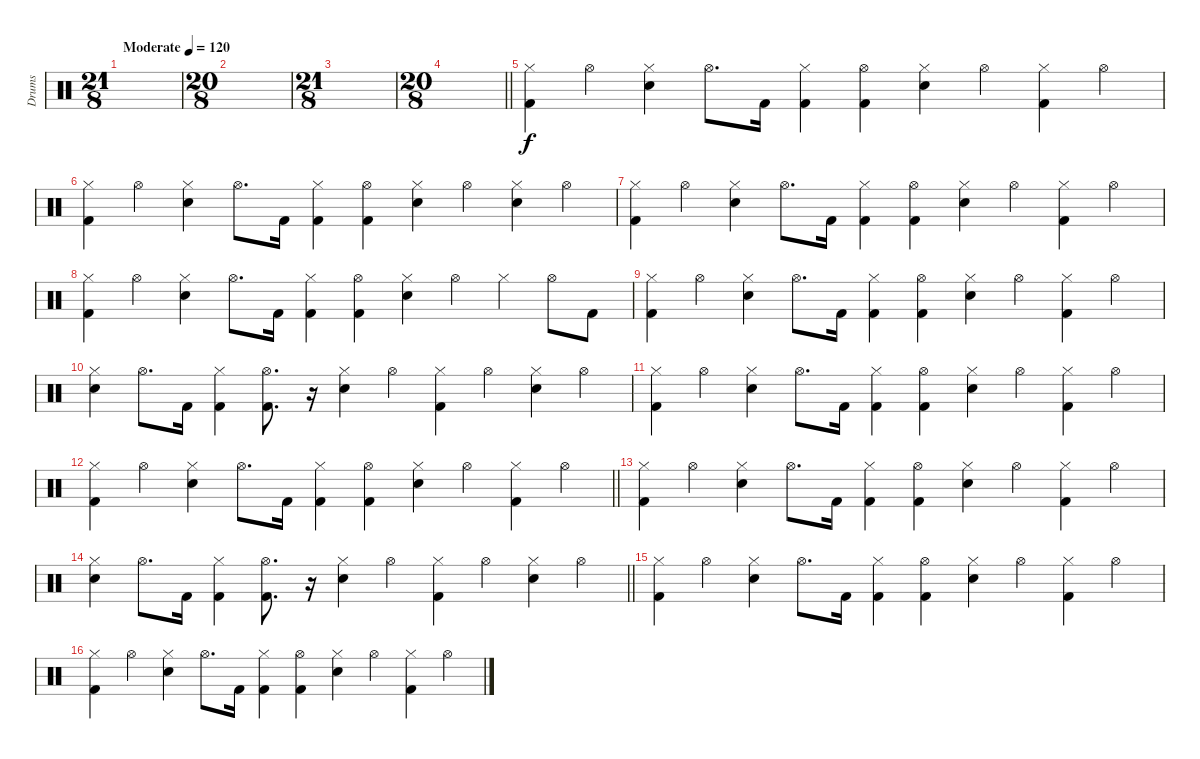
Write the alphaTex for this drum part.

\track ("Drums" "Drums") {instrument percussion}
\staff {score}
\articulation defaults
\ts (21 8)
\section ("" "")
\tempo (120 "Moderate")
\clef neutral
\ks c
|
\ts (20 8)
|
\ts (21 8)
|
\ts (20 8)
\barLineRight lightlight
|
\section ("" "")
("Hi-Hat (closed)" "Kick (hit) 2").4 "Hi-Hat (open)".4 ("Hi-Hat (closed)" "Electric Snare (hit)").4 "Hi-Hat (open)".8{d} "Kick (hit) 2".16 ("Hi-Hat (closed)" "Kick (hit) 2").4 ("Hi-Hat (open)" "Kick (hit) 2").4 ("Hi-Hat (closed)" "Electric Snare (hit)").4 "Hi-Hat (open)".4 ("Hi-Hat (closed)" "Kick (hit) 2").4 "Hi-Hat (open)".4 |
("Hi-Hat (closed)" "Kick (hit) 2").4 "Hi-Hat (open)".4 ("Hi-Hat (closed)" "Electric Snare (hit)").4 "Hi-Hat (open)".8{d} "Kick (hit) 2".16 ("Hi-Hat (closed)" "Kick (hit) 2").4 ("Hi-Hat (open)" "Kick (hit) 2").4 ("Hi-Hat (closed)" "Electric Snare (hit)").4 "Hi-Hat (open)".4 ("Hi-Hat (closed)" "Electric Snare (hit)").4 "Hi-Hat (open)".4 |
("Hi-Hat (closed)" "Kick (hit) 2").4 "Hi-Hat (open)".4 ("Hi-Hat (closed)" "Electric Snare (hit)").4 "Hi-Hat (open)".8{d} "Kick (hit) 2".16 ("Hi-Hat (closed)" "Kick (hit) 2").4 ("Hi-Hat (open)" "Kick (hit) 2").4 ("Hi-Hat (closed)" "Electric Snare (hit)").4 "Hi-Hat (open)".4 ("Hi-Hat (closed)" "Kick (hit) 2").4 "Hi-Hat (open)".4 |
("Hi-Hat (closed)" "Kick (hit) 2").4 "Hi-Hat (open)".4 ("Hi-Hat (closed)" "Electric Snare (hit)").4 "Hi-Hat (open)".8{d} "Kick (hit) 2".16 ("Hi-Hat (closed)" "Kick (hit) 2").4 ("Hi-Hat (open)" "Kick (hit) 2").4 ("Hi-Hat (closed)" "Electric Snare (hit)").4 "Hi-Hat (open)".4 "Hi-Hat (closed)".4 "Hi-Hat (open)".8 "Kick (hit) 2".8 |
("Hi-Hat (closed)" "Kick (hit) 2").4 "Hi-Hat (open)".4 ("Hi-Hat (closed)" "Electric Snare (hit)").4 "Hi-Hat (open)".8{d} "Kick (hit) 2".16 ("Hi-Hat (closed)" "Kick (hit) 2").4 ("Hi-Hat (open)" "Kick (hit) 2").4 ("Hi-Hat (closed)" "Electric Snare (hit)").4 "Hi-Hat (open)".4 ("Hi-Hat (closed)" "Kick (hit) 2").4 "Hi-Hat (open)".4 |
("Hi-Hat (closed)" "Electric Snare (hit)").4 "Hi-Hat (open)".8{d} "Kick (hit) 2".16 ("Hi-Hat (closed)" "Kick (hit) 2").4 ("Hi-Hat (open)" "Kick (hit) 2").8{d} r.16 ("Hi-Hat (closed)" "Electric Snare (hit)").4 "Hi-Hat (open)".4 ("Hi-Hat (closed)" "Kick (hit) 2").4 "Hi-Hat (open)".4 ("Hi-Hat (closed)" "Electric Snare (hit)").4 "Hi-Hat (open)".4 |
("Hi-Hat (closed)" "Kick (hit) 2").4 "Hi-Hat (open)".4 ("Hi-Hat (closed)" "Electric Snare (hit)").4 "Hi-Hat (open)".8{d} "Kick (hit) 2".16 ("Hi-Hat (closed)" "Kick (hit) 2").4 ("Hi-Hat (open)" "Kick (hit) 2").4 ("Hi-Hat (closed)" "Electric Snare (hit)").4 "Hi-Hat (open)".4 ("Hi-Hat (closed)" "Kick (hit) 2").4 "Hi-Hat (open)".4 |
\barLineRight lightlight
("Hi-Hat (closed)" "Kick (hit) 2").4 "Hi-Hat (open)".4 ("Hi-Hat (closed)" "Electric Snare (hit)").4 "Hi-Hat (open)".8{d} "Kick (hit) 2".16 ("Hi-Hat (closed)" "Kick (hit) 2").4 ("Hi-Hat (open)" "Kick (hit) 2").4 ("Hi-Hat (closed)" "Electric Snare (hit)").4 "Hi-Hat (open)".4 ("Hi-Hat (closed)" "Kick (hit) 2").4 "Hi-Hat (open)".4 |
\section ("" "")
("Hi-Hat (closed)" "Kick (hit) 2").4 "Hi-Hat (open)".4 ("Hi-Hat (closed)" "Electric Snare (hit)").4 "Hi-Hat (open)".8{d} "Kick (hit) 2".16 ("Hi-Hat (closed)" "Kick (hit) 2").4 ("Hi-Hat (open)" "Kick (hit) 2").4 ("Hi-Hat (closed)" "Electric Snare (hit)").4 "Hi-Hat (open)".4 ("Hi-Hat (closed)" "Kick (hit) 2").4 "Hi-Hat (open)".4 |
\barLineRight lightlight
("Hi-Hat (closed)" "Electric Snare (hit)").4 "Hi-Hat (open)".8{d} "Kick (hit) 2".16 ("Hi-Hat (closed)" "Kick (hit) 2").4 ("Hi-Hat (open)" "Kick (hit) 2").8{d} r.16 ("Hi-Hat (closed)" "Electric Snare (hit)").4 "Hi-Hat (open)".4 ("Hi-Hat (closed)" "Kick (hit) 2").4 "Hi-Hat (open)".4 ("Hi-Hat (closed)" "Electric Snare (hit)").4 "Hi-Hat (open)".4 |
\section ("" "")
("Hi-Hat (closed)" "Kick (hit) 2").4 "Hi-Hat (open)".4 ("Hi-Hat (closed)" "Electric Snare (hit)").4 "Hi-Hat (open)".8{d} "Kick (hit) 2".16 ("Hi-Hat (closed)" "Kick (hit) 2").4 ("Hi-Hat (open)" "Kick (hit) 2").4 ("Hi-Hat (closed)" "Electric Snare (hit)").4 "Hi-Hat (open)".4 ("Hi-Hat (closed)" "Kick (hit) 2").4 "Hi-Hat (open)".4 |
("Hi-Hat (closed)" "Kick (hit) 2").4 "Hi-Hat (open)".4 ("Hi-Hat (closed)" "Electric Snare (hit)").4 "Hi-Hat (open)".8{d} "Kick (hit) 2".16 ("Hi-Hat (closed)" "Kick (hit) 2").4 ("Hi-Hat (open)" "Kick (hit) 2").4 ("Hi-Hat (closed)" "Electric Snare (hit)").4 "Hi-Hat (open)".4 ("Hi-Hat (closed)" "Kick (hit) 2").4 "Hi-Hat (open)".4
